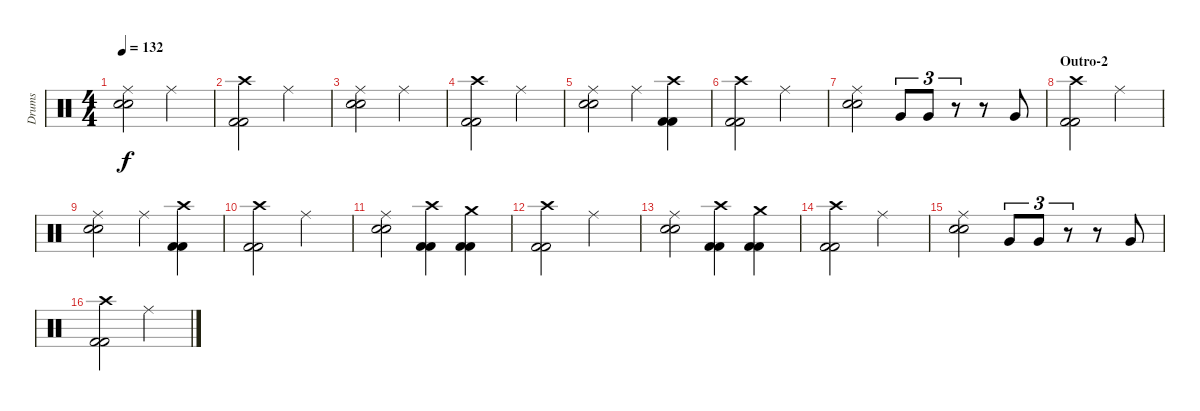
\track ("Drums" "Drums") {instrument percussion}
\staff {score}
\articulation defaults
\ts (4 4)
\tempo 132
\clef neutral
\ks c
("Ride (middle)" "Snare (hit) 2" "Snare (hit) 2").2{dy f} "Ride (middle)".2 |
("Crash high (hit)" "Kick (hit) 2" "Kick (hit) 2").2 "Ride (middle)".2 |
("Ride (middle)" "Snare (hit) 2" "Snare (hit) 2").2 "Ride (middle)".2 |
("Crash high (hit)" "Kick (hit) 2" "Kick (hit) 2").2 "Ride (middle)".2 |
("Ride (middle)" "Snare (hit) 2" "Snare (hit) 2").2 "Ride (middle)".4 ("Crash high (hit)" "Kick (hit) 2" "Kick (hit) 2").4 |
("Crash high (hit)" "Kick (hit) 2" "Kick (hit) 2").2 "Ride (middle)".2 |
("Ride (middle)" "Snare (hit) 2" "Snare (hit) 2").2 "Very Low Tom (hit)".8{tu (3 2)} "Very Low Tom (hit)".8{tu (3 2)} r.8{tu (3 2)} r.8 "Very Low Tom (hit)".8 |
\section ("" "Outro-2")
("Crash high (hit)" "Kick (hit) 2" "Kick (hit) 2").2 "Ride (middle)".2 |
("Ride (middle)" "Snare (hit) 2" "Snare (hit) 2").2 "Ride (middle)".4 ("Crash high (hit)" "Kick (hit) 2" "Kick (hit) 2").4 |
("Crash high (hit)" "Kick (hit) 2" "Kick (hit) 2").2 "Ride (middle)".2 |
("Ride (middle)" "Snare (hit) 2" "Snare (hit) 2").2 ("Crash high (hit)" "Kick (hit) 2" "Kick (hit) 2").4 ("Crash medium (hit)" "Kick (hit) 2" "Kick (hit) 2").4 |
("Crash high (hit)" "Kick (hit) 2" "Kick (hit) 2").2 "Ride (middle)".2 |
("Ride (middle)" "Snare (hit) 2" "Snare (hit) 2").2 ("Crash high (hit)" "Kick (hit) 2" "Kick (hit) 2").4 ("Crash medium (hit)" "Kick (hit) 2" "Kick (hit) 2").4 |
("Crash high (hit)" "Kick (hit) 2" "Kick (hit) 2").2 "Ride (middle)".2 |
("Ride (middle)" "Snare (hit) 2" "Snare (hit) 2").2 "Very Low Tom (hit)".8{tu (3 2)} "Very Low Tom (hit)".8{tu (3 2)} r.8{tu (3 2)} r.8 "Very Low Tom (hit)".8 |
("Crash high (hit)" "Kick (hit) 2" "Kick (hit) 2").2 "Ride (middle)".2
